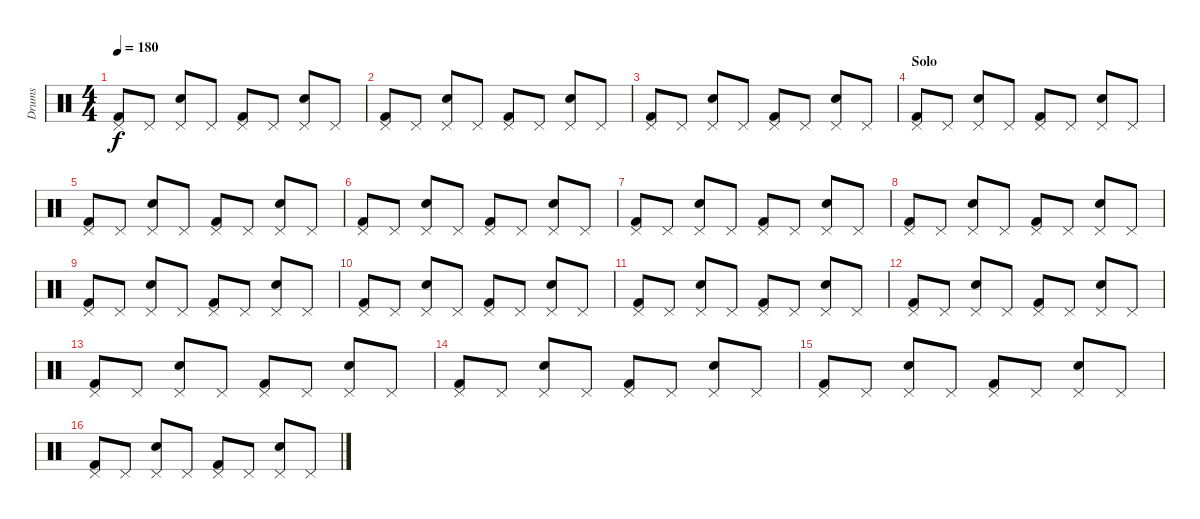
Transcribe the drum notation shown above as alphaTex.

\track ("Drums" "Drums") {instrument percussion}
\staff {score}
\articulation defaults
\ts (4 4)
\tempo 180
\clef neutral
\ks c
("Pedal Hi-Hat (hit)" "Kick (hit) 2").8{dy f} "Pedal Hi-Hat (hit)".8 ("Pedal Hi-Hat (hit)" "Electric Snare (hit)").8 "Pedal Hi-Hat (hit)".8 ("Pedal Hi-Hat (hit)" "Kick (hit) 2").8 "Pedal Hi-Hat (hit)".8 ("Pedal Hi-Hat (hit)" "Electric Snare (hit)").8 "Pedal Hi-Hat (hit)".8 |
("Pedal Hi-Hat (hit)" "Kick (hit) 2").8 "Pedal Hi-Hat (hit)".8 ("Pedal Hi-Hat (hit)" "Electric Snare (hit)").8 "Pedal Hi-Hat (hit)".8 ("Pedal Hi-Hat (hit)" "Kick (hit) 2").8 "Pedal Hi-Hat (hit)".8 ("Pedal Hi-Hat (hit)" "Electric Snare (hit)").8 "Pedal Hi-Hat (hit)".8 |
("Pedal Hi-Hat (hit)" "Kick (hit) 2").8 "Pedal Hi-Hat (hit)".8 ("Pedal Hi-Hat (hit)" "Electric Snare (hit)").8 "Pedal Hi-Hat (hit)".8 ("Pedal Hi-Hat (hit)" "Kick (hit) 2").8 "Pedal Hi-Hat (hit)".8 ("Pedal Hi-Hat (hit)" "Electric Snare (hit)").8 "Pedal Hi-Hat (hit)".8 |
\section ("" "Solo")
("Pedal Hi-Hat (hit)" "Kick (hit) 2").8 "Pedal Hi-Hat (hit)".8 ("Pedal Hi-Hat (hit)" "Electric Snare (hit)").8 "Pedal Hi-Hat (hit)".8 ("Pedal Hi-Hat (hit)" "Kick (hit) 2").8 "Pedal Hi-Hat (hit)".8 ("Pedal Hi-Hat (hit)" "Electric Snare (hit)").8 "Pedal Hi-Hat (hit)".8 |
("Pedal Hi-Hat (hit)" "Kick (hit) 2").8 "Pedal Hi-Hat (hit)".8 ("Pedal Hi-Hat (hit)" "Electric Snare (hit)").8 "Pedal Hi-Hat (hit)".8 ("Pedal Hi-Hat (hit)" "Kick (hit) 2").8 "Pedal Hi-Hat (hit)".8 ("Pedal Hi-Hat (hit)" "Electric Snare (hit)").8 "Pedal Hi-Hat (hit)".8 |
("Pedal Hi-Hat (hit)" "Kick (hit) 2").8 "Pedal Hi-Hat (hit)".8 ("Pedal Hi-Hat (hit)" "Electric Snare (hit)").8 "Pedal Hi-Hat (hit)".8 ("Pedal Hi-Hat (hit)" "Kick (hit) 2").8 "Pedal Hi-Hat (hit)".8 ("Pedal Hi-Hat (hit)" "Electric Snare (hit)").8 "Pedal Hi-Hat (hit)".8 |
("Pedal Hi-Hat (hit)" "Kick (hit) 2").8 "Pedal Hi-Hat (hit)".8 ("Pedal Hi-Hat (hit)" "Electric Snare (hit)").8 "Pedal Hi-Hat (hit)".8 ("Pedal Hi-Hat (hit)" "Kick (hit) 2").8 "Pedal Hi-Hat (hit)".8 ("Pedal Hi-Hat (hit)" "Electric Snare (hit)").8 "Pedal Hi-Hat (hit)".8 |
("Pedal Hi-Hat (hit)" "Kick (hit) 2").8 "Pedal Hi-Hat (hit)".8 ("Pedal Hi-Hat (hit)" "Electric Snare (hit)").8 "Pedal Hi-Hat (hit)".8 ("Pedal Hi-Hat (hit)" "Kick (hit) 2").8 "Pedal Hi-Hat (hit)".8 ("Pedal Hi-Hat (hit)" "Electric Snare (hit)").8 "Pedal Hi-Hat (hit)".8 |
("Pedal Hi-Hat (hit)" "Kick (hit) 2").8 "Pedal Hi-Hat (hit)".8 ("Pedal Hi-Hat (hit)" "Electric Snare (hit)").8 "Pedal Hi-Hat (hit)".8 ("Pedal Hi-Hat (hit)" "Kick (hit) 2").8 "Pedal Hi-Hat (hit)".8 ("Pedal Hi-Hat (hit)" "Electric Snare (hit)").8 "Pedal Hi-Hat (hit)".8 |
("Pedal Hi-Hat (hit)" "Kick (hit) 2").8 "Pedal Hi-Hat (hit)".8 ("Pedal Hi-Hat (hit)" "Electric Snare (hit)").8 "Pedal Hi-Hat (hit)".8 ("Pedal Hi-Hat (hit)" "Kick (hit) 2").8 "Pedal Hi-Hat (hit)".8 ("Pedal Hi-Hat (hit)" "Electric Snare (hit)").8 "Pedal Hi-Hat (hit)".8 |
("Pedal Hi-Hat (hit)" "Kick (hit) 2").8 "Pedal Hi-Hat (hit)".8 ("Pedal Hi-Hat (hit)" "Electric Snare (hit)").8 "Pedal Hi-Hat (hit)".8 ("Pedal Hi-Hat (hit)" "Kick (hit) 2").8 "Pedal Hi-Hat (hit)".8 ("Pedal Hi-Hat (hit)" "Electric Snare (hit)").8 "Pedal Hi-Hat (hit)".8 |
("Pedal Hi-Hat (hit)" "Kick (hit) 2").8 "Pedal Hi-Hat (hit)".8 ("Pedal Hi-Hat (hit)" "Electric Snare (hit)").8 "Pedal Hi-Hat (hit)".8 ("Pedal Hi-Hat (hit)" "Kick (hit) 2").8 "Pedal Hi-Hat (hit)".8 ("Pedal Hi-Hat (hit)" "Electric Snare (hit)").8 "Pedal Hi-Hat (hit)".8 |
("Pedal Hi-Hat (hit)" "Kick (hit) 2").8 "Pedal Hi-Hat (hit)".8 ("Pedal Hi-Hat (hit)" "Electric Snare (hit)").8 "Pedal Hi-Hat (hit)".8 ("Pedal Hi-Hat (hit)" "Kick (hit) 2").8 "Pedal Hi-Hat (hit)".8 ("Pedal Hi-Hat (hit)" "Electric Snare (hit)").8 "Pedal Hi-Hat (hit)".8 |
("Pedal Hi-Hat (hit)" "Kick (hit) 2").8 "Pedal Hi-Hat (hit)".8 ("Pedal Hi-Hat (hit)" "Electric Snare (hit)").8 "Pedal Hi-Hat (hit)".8 ("Pedal Hi-Hat (hit)" "Kick (hit) 2").8 "Pedal Hi-Hat (hit)".8 ("Pedal Hi-Hat (hit)" "Electric Snare (hit)").8 "Pedal Hi-Hat (hit)".8 |
("Pedal Hi-Hat (hit)" "Kick (hit) 2").8 "Pedal Hi-Hat (hit)".8 ("Pedal Hi-Hat (hit)" "Electric Snare (hit)").8 "Pedal Hi-Hat (hit)".8 ("Pedal Hi-Hat (hit)" "Kick (hit) 2").8 "Pedal Hi-Hat (hit)".8 ("Pedal Hi-Hat (hit)" "Electric Snare (hit)").8 "Pedal Hi-Hat (hit)".8 |
("Pedal Hi-Hat (hit)" "Kick (hit) 2").8 "Pedal Hi-Hat (hit)".8 ("Pedal Hi-Hat (hit)" "Electric Snare (hit)").8 "Pedal Hi-Hat (hit)".8 ("Pedal Hi-Hat (hit)" "Kick (hit) 2").8 "Pedal Hi-Hat (hit)".8 ("Pedal Hi-Hat (hit)" "Electric Snare (hit)").8 "Pedal Hi-Hat (hit)".8
